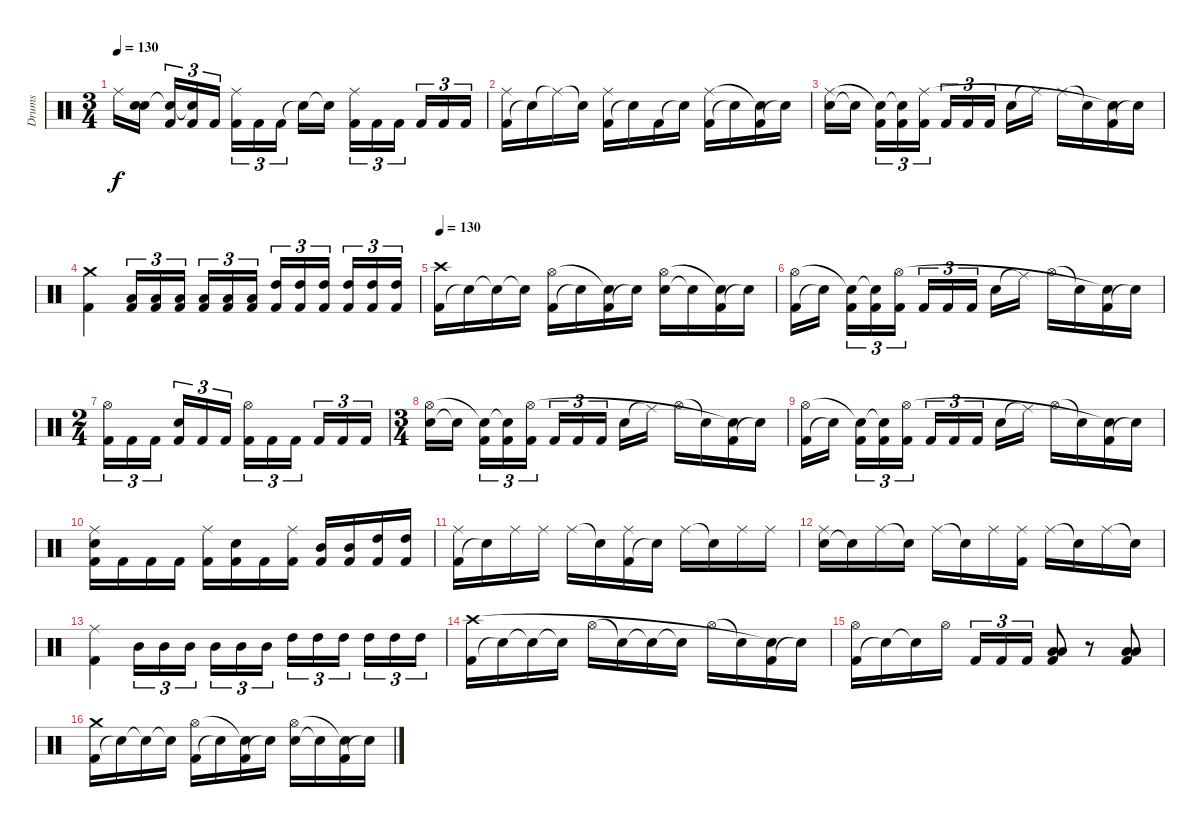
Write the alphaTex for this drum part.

\track ("Drums" "Drums") {instrument percussion}
\staff {score}
\articulation defaults
\ts (3 4)
\tempo 130
\clef neutral
\ks c "Ride (middle)".16{dy f}
("Snare (hit) 2" "Snare (hit)"{t}).16 ("Kick (hit) 2" "Snare (hit)"{t}).16{tu (3 2)} ("Kick (hit) 2" "Snare (hit)"{t}).16{tu (3 2)} "Kick (hit) 2".16{tu (3 2)} ("Kick (hit) 2" "Ride (middle)").16{tu (3 2)} "Kick (hit) 2".16{tu (3 2)} "Kick (hit) 2".16{tu (3 2)} "Snare (hit)"{t}.16 "Snare (hit)"{t}.16 ("Kick (hit) 2" "Ride (middle)").16{tu (3 2)} "Kick (hit) 2".16{tu (3 2)} "Kick (hit) 2".16{tu (3 2)} "Kick (hit) 2".16{tu (3 2)} "Kick (hit) 2".16{tu (3 2)} "Kick (hit) 2".16{tu (3 2)} |
("Kick (hit) 2" "Ride (middle)").16 "Snare (hit)"{t}.16 "Ride (middle)"{t}.16 "Snare (hit)"{t}.16 ("Kick (hit) 2" "Ride (middle)").16 "Snare (hit)"{t}.16 "Kick (hit) 2".16 "Snare (hit)"{t}.16 ("Kick (hit) 2" "Ride (middle)").16 "Snare (hit)"{t}.16 ("Kick (hit) 2" "Snare (hit) 2"{t}).16 "Snare (hit)"{t}.16 |
("Snare (hit) 2" "Ride (middle)").16 "Snare (hit)"{t}.16 ("Kick (hit) 2" "Snare (hit)"{t}).16{tu (3 2)} ("Kick (hit) 2" "Snare (hit)"{t}).16{tu (3 2)} ("Kick (hit) 2" "Ride (middle)").16{tu (3 2)} "Kick (hit) 2".16{tu (3 2)} "Kick (hit) 2".16{tu (3 2)} "Kick (hit) 2".16{tu (3 2)} "Snare (hit) 2".16 "Ride (middle)"{t}.16 "Ride (middle)".16 "Snare (hit)"{t}.16 ("Kick (hit) 2" "Snare (hit)"{t}).16 "Snare (hit)"{t}.16 |
("Kick (hit) 2" "Crash medium (hit)").4 ("Kick (hit) 2" "Low Tom (hit)").16{tu (3 2)} ("Kick (hit) 2" "Low Tom (hit)").16{tu (3 2)} ("Kick (hit) 2" "Low Tom (hit)").16{tu (3 2)} ("Kick (hit) 2" "Low Tom (hit)").16{tu (3 2)} ("Kick (hit) 2" "Low Tom (hit)").16{tu (3 2)} ("Kick (hit) 2" "Low Tom (hit)").16{tu (3 2)} ("Kick (hit) 2" "High Tom (hit)").16{tu (3 2)} ("Kick (hit) 2" "High Tom (hit)").16{tu (3 2)} ("Kick (hit) 2" "High Tom (hit)").16{tu (3 2)} ("Kick (hit) 2" "High Tom (hit)").16{tu (3 2)} ("Kick (hit) 2" "High Tom (hit)").16{tu (3 2)} ("Kick (hit) 2" "High Tom (hit)").16{tu (3 2)} |
\tempo 130
("Kick (hit) 2" "Crash high (hit)").16 "Snare (hit)"{t}.16 "Snare (hit)"{t}.16 "Snare (hit)"{t}.16 ("Kick (hit) 2" "Hi-Hat (open)").16 "Snare (hit)"{t}.16 ("Kick (hit) 2" "Snare (hit)"{t}).16 "Snare (hit)"{t}.16 ("Snare (hit) 2" "Hi-Hat (open)").16 "Snare (hit)"{t}.16 ("Kick (hit) 2" "Snare (hit)"{t}).16 "Snare (hit)"{t}.16 |
("Kick (hit) 2" "Hi-Hat (open)").16 "Snare (hit)"{t}.16 ("Kick (hit) 2" "Snare (hit)"{t}).16{tu (3 2)} ("Kick (hit) 2" "Snare (hit)"{t}).16{tu (3 2)} ("Kick (hit) 2" "Hi-Hat (open)").16{tu (3 2)} "Kick (hit) 2".16{tu (3 2)} "Kick (hit) 2".16{tu (3 2)} "Kick (hit) 2".16{tu (3 2)} "Snare (hit) 2".16 "Ride (middle)"{t}.16 "Hi-Hat (open)".16 "Snare (hit)"{t}.16 ("Kick (hit) 2" "Snare (hit)"{t}).16 "Snare (hit)"{t}.16 |
\ts (2 4)
("Kick (hit) 2" "Hi-Hat (open)").16{tu (3 2)} "Kick (hit) 2".16{tu (3 2)} "Kick (hit) 2".16{tu (3 2)} ("Kick (hit) 2" "Snare (hit) 2").16{tu (3 2)} "Kick (hit) 2".16{tu (3 2)} "Kick (hit) 2".16{tu (3 2)} ("Kick (hit) 2" "Hi-Hat (open)").16{tu (3 2)} "Kick (hit) 2".16{tu (3 2)} "Kick (hit) 2".16{tu (3 2)} "Kick (hit) 2".16{tu (3 2)} "Kick (hit) 2".16{tu (3 2)} "Kick (hit) 2".16{tu (3 2)} |
\ts (3 4)
("Snare (hit) 2" "Hi-Hat (open)").16 "Snare (hit)"{t}.16 ("Kick (hit) 2" "Snare (hit)"{t}).16{tu (3 2)} ("Kick (hit) 2" "Snare (hit)"{t}).16{tu (3 2)} ("Kick (hit) 2" "Hi-Hat (open)").16{tu (3 2)} "Kick (hit) 2".16{tu (3 2)} "Kick (hit) 2".16{tu (3 2)} "Kick (hit) 2".16{tu (3 2)} "Snare (hit) 2".16 "Ride (middle)"{t}.16 "Hi-Hat (open)".16 "Snare (hit)"{t}.16 ("Kick (hit) 2" "Snare (hit)"{t}).16 "Snare (hit)"{t}.16 |
("Kick (hit) 2" "Hi-Hat (open)").16 "Snare (hit)"{t}.16 ("Kick (hit) 2" "Snare (hit)"{t}).16{tu (3 2)} ("Kick (hit) 2" "Snare (hit)"{t}).16{tu (3 2)} ("Kick (hit) 2" "Hi-Hat (open)").16{tu (3 2)} "Kick (hit) 2".16{tu (3 2)} "Kick (hit) 2".16{tu (3 2)} "Kick (hit) 2".16{tu (3 2)} "Snare (hit) 2".16 "Ride (middle)"{t}.16 "Hi-Hat (open)".16 "Snare (hit)"{t}.16 ("Kick (hit) 2" "Snare (hit)"{t}).16 "Snare (hit)"{t}.16 |
("Kick (hit) 2" "Snare (hit) 2" "Ride (middle)").16 "Kick (hit) 2".16 "Kick (hit) 2".16 "Kick (hit) 2".16 ("Kick (hit) 2" "Ride (middle)").16 ("Kick (hit) 2" "Snare (hit) 2").16 "Kick (hit) 2".16 ("Kick (hit) 2" "Ride (middle)").16 ("Kick (hit) 2" "Mid Tom (hit)").16 ("Kick (hit) 2" "Mid Tom (hit)").16 ("Kick (hit) 2" "High Tom (hit)").16 ("Kick (hit) 2" "High Tom (hit)").16 |
("Kick (hit) 2" "Ride (middle)").16 "Snare (hit)"{t}.16 "Ride (middle)".16 "Ride (middle)".16 "Ride (middle)".16 "Snare (hit)"{t}.16 ("Kick (hit) 2" "Ride (middle)").16 "Snare (hit)"{t}.16 "Ride (middle)".16 "Snare (hit)"{t}.16 "Ride (middle)".16 "Ride (middle)".16 |
("Snare (hit) 2" "Ride (middle)").16 "Snare (hit)"{t}.16 "Ride (middle)".16 "Snare (hit)"{t}.16 "Ride (middle)".16 "Snare (hit)"{t}.16 "Ride (middle)".16 ("Kick (hit) 2" "Ride (middle)").16 "Ride (middle)".16 "Snare (hit)"{t}.16 "Ride (middle)".16 "Snare (hit)"{t}.16 |
("Kick (hit) 2" "Ride (middle)").4 "Mid Tom (hit)".16{tu (3 2)} "Mid Tom (hit)".16{tu (3 2)} "Mid Tom (hit)".16{tu (3 2)} "Mid Tom (hit)".16{tu (3 2)} "Mid Tom (hit)".16{tu (3 2)} "Mid Tom (hit)".16{tu (3 2)} "High Tom (hit)".16{tu (3 2)} "High Tom (hit)".16{tu (3 2)} "High Tom (hit)".16{tu (3 2)} "High Tom (hit)".16{tu (3 2)} "High Tom (hit)".16{tu (3 2)} "High Tom (hit)".16{tu (3 2)} |
("Kick (hit) 2" "Crash high (hit)").16 "Snare (hit)"{t}.16 "Snare (hit)"{t}.16 "Snare (hit)"{t}.16 "Hi-Hat (open)".16 "Snare (hit)"{t}.16 "Snare (hit)"{t}.16 "Snare (hit)"{t}.16 "Hi-Hat (open)".16 "Snare (hit)"{t}.16 ("Kick (hit) 2" "Snare (hit)"{t}).16 "Snare (hit)"{t}.16 |
("Kick (hit) 2" "Hi-Hat (open)").16 "Snare (hit)"{t}.16 "Snare (hit)"{t}.16 "Hi-Hat (open)".16 "Kick (hit) 2".16{tu (3 2)} "Kick (hit) 2".16{tu (3 2)} "Kick (hit) 2".16{tu (3 2)} ("Kick (hit) 2" "Low Floor Tom (hit)" "Low Floor Tom (hit)").8 r.8 ("Kick (hit) 2" "Low Floor Tom (hit)" "Low Floor Tom (hit)").8 |
("Kick (hit) 2" "Crash medium (hit)").16 "Snare (hit)"{t}.16 "Snare (hit)"{t}.16 "Snare (hit)"{t}.16 ("Kick (hit) 2" "Hi-Hat (open)").16 "Snare (hit)"{t}.16 ("Kick (hit) 2" "Snare (hit)"{t}).16 "Snare (hit)"{t}.16 ("Snare (hit) 2" "Hi-Hat (open)").16 "Snare (hit)"{t}.16 ("Kick (hit) 2" "Snare (hit)"{t}).16 "Snare (hit)"{t}.16
